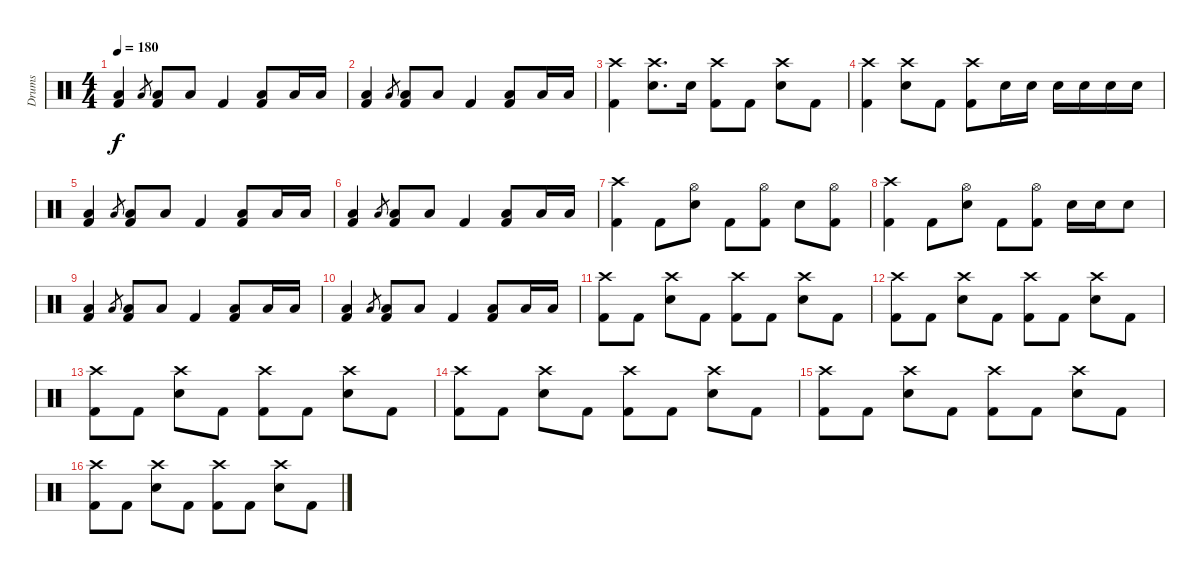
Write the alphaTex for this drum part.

\track ("Drums" "Drums") {instrument percussion}
\staff {score}
\articulation defaults
\ts (4 4)
\tempo 180
\clef neutral
\ks c
("Low Tom (hit)" "Kick (hit) 2").4{dy f} "Low Tom (hit)".8{gr} ("Low Tom (hit)" "Kick (hit) 2").8 "Low Tom (hit)".8 "Kick (hit) 2".4 ("Low Tom (hit)" "Kick (hit) 2").8 "Low Tom (hit)".16 "Low Tom (hit)".16 |
("Low Tom (hit)" "Kick (hit) 2").4 "Low Tom (hit)".8{gr} ("Low Tom (hit)" "Kick (hit) 2").8 "Low Tom (hit)".8 "Kick (hit) 2".4 ("Low Tom (hit)" "Kick (hit) 2").8 "Low Tom (hit)".16 "Low Tom (hit)".16 |
("Crash high (hit)" "Kick (hit) 2").4 ("Crash high (hit)" "Snare (hit) 2").8{d} "Snare (hit) 2".16 ("Crash high (hit)" "Kick (hit) 2").8 "Kick (hit) 2".8 ("Crash high (hit)" "Snare (hit) 2").8 "Kick (hit) 2".8 |
("Crash high (hit)" "Kick (hit) 2").4 ("Crash high (hit)" "Snare (hit) 2").8 "Kick (hit) 2".8 ("Crash high (hit)" "Kick (hit) 2").8 "Snare (hit) 2".16 "Snare (hit) 2".16 "Snare (hit) 2".16 "Snare (hit) 2".16 "Snare (hit) 2".16 "Snare (hit) 2".16 |
("Low Tom (hit)" "Kick (hit) 2").4 "Low Tom (hit)".8{gr} ("Low Tom (hit)" "Kick (hit) 2").8 "Low Tom (hit)".8 "Kick (hit) 2".4 ("Low Tom (hit)" "Kick (hit) 2").8 "Low Tom (hit)".16 "Low Tom (hit)".16 |
("Low Tom (hit)" "Kick (hit) 2").4 "Low Tom (hit)".8{gr} ("Low Tom (hit)" "Kick (hit) 2").8 "Low Tom (hit)".8 "Kick (hit) 2".4 ("Low Tom (hit)" "Kick (hit) 2").8 "Low Tom (hit)".16 "Low Tom (hit)".16 |
("Crash high (hit)" "Kick (hit) 2").4 "Kick (hit) 2".8 ("Hi-Hat (open)" "Snare (hit) 2").8 "Kick (hit) 2".8 ("Hi-Hat (open)" "Kick (hit) 2").8 "Snare (hit) 2".8 ("Hi-Hat (open)" "Kick (hit) 2").8 |
("Crash high (hit)" "Kick (hit) 2").4 "Kick (hit) 2".8 ("Hi-Hat (open)" "Snare (hit) 2").8 "Kick (hit) 2".8 ("Hi-Hat (open)" "Kick (hit) 2").8 "Snare (hit) 2".16 "Snare (hit) 2".16 "Snare (hit) 2".8 |
("Low Tom (hit)" "Kick (hit) 2").4 "Low Tom (hit)".8{gr} ("Low Tom (hit)" "Kick (hit) 2").8 "Low Tom (hit)".8 "Kick (hit) 2".4 ("Low Tom (hit)" "Kick (hit) 2").8 "Low Tom (hit)".16 "Low Tom (hit)".16 |
("Low Tom (hit)" "Kick (hit) 2").4 "Low Tom (hit)".8{gr} ("Low Tom (hit)" "Kick (hit) 2").8 "Low Tom (hit)".8 "Kick (hit) 2".4 ("Low Tom (hit)" "Kick (hit) 2").8 "Low Tom (hit)".16 "Low Tom (hit)".16 |
("Crash high (hit)" "Kick (hit) 2").8 "Kick (hit) 2".8 ("Crash high (hit)" "Snare (hit) 2").8 "Kick (hit) 2".8 ("Crash high (hit)" "Kick (hit) 2").8 "Kick (hit) 2".8 ("Crash high (hit)" "Snare (hit) 2").8 "Kick (hit) 2".8 |
("Crash high (hit)" "Kick (hit) 2").8 "Kick (hit) 2".8 ("Crash high (hit)" "Snare (hit) 2").8 "Kick (hit) 2".8 ("Crash high (hit)" "Kick (hit) 2").8 "Kick (hit) 2".8 ("Crash high (hit)" "Snare (hit) 2").8 "Kick (hit) 2".8 |
("Crash high (hit)" "Kick (hit) 2").8 "Kick (hit) 2".8 ("Crash high (hit)" "Snare (hit) 2").8 "Kick (hit) 2".8 ("Crash high (hit)" "Kick (hit) 2").8 "Kick (hit) 2".8 ("Crash high (hit)" "Snare (hit) 2").8 "Kick (hit) 2".8 |
("Crash high (hit)" "Kick (hit) 2").8 "Kick (hit) 2".8 ("Crash high (hit)" "Snare (hit) 2").8 "Kick (hit) 2".8 ("Crash high (hit)" "Kick (hit) 2").8 "Kick (hit) 2".8 ("Crash high (hit)" "Snare (hit) 2").8 "Kick (hit) 2".8 |
("Crash high (hit)" "Kick (hit) 2").8 "Kick (hit) 2".8 ("Crash high (hit)" "Snare (hit) 2").8 "Kick (hit) 2".8 ("Crash high (hit)" "Kick (hit) 2").8 "Kick (hit) 2".8 ("Crash high (hit)" "Snare (hit) 2").8 "Kick (hit) 2".8 |
("Crash high (hit)" "Kick (hit) 2").8 "Kick (hit) 2".8 ("Crash high (hit)" "Snare (hit) 2").8 "Kick (hit) 2".8 ("Crash high (hit)" "Kick (hit) 2").8 "Kick (hit) 2".8 ("Crash high (hit)" "Snare (hit) 2").8 "Kick (hit) 2".8
